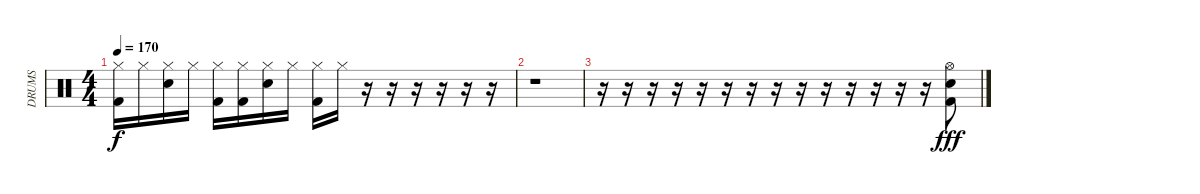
\track ("DRUMS" "DRUMS") {instrument percussion}
\staff {score}
\articulation defaults
\ts (4 4)
\tempo 170
\clef neutral
\ks c
("Hi-Hat (closed)" "Kick (hit) 2").16{dy f} "Hi-Hat (closed)".16 ("Hi-Hat (closed)" "Electric Snare (hit)").16 "Hi-Hat (closed)".16 ("Hi-Hat (closed)" "Kick (hit) 2").16 ("Hi-Hat (closed)" "Kick (hit) 2").16 ("Hi-Hat (closed)" "Electric Snare (hit)").16 "Hi-Hat (closed)".16 ("Hi-Hat (closed)" "Kick (hit) 2").16 "Hi-Hat (closed)".16 r.16 r.16 r.16 r.16 r.16 r.16 |
r.1 |
r.16 r.16 r.16 r.16 r.16 r.16 r.16 r.16 r.16 r.16 r.16 r.16 r.16 r.16 ("Hi-Hat (open)" "Kick (hit) 2" "Electric Snare (hit)").8{dy fff}
